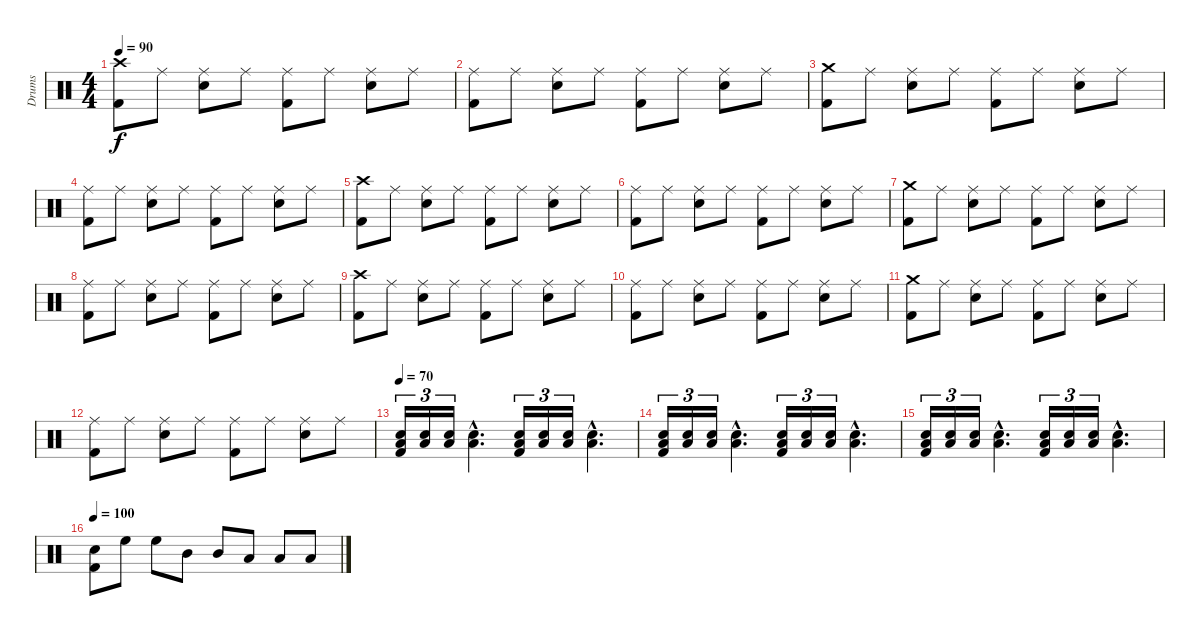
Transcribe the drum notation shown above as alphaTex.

\track ("Drums" "Drums") {instrument percussion}
\staff {score}
\articulation defaults
\ts (4 4)
\tempo 90
\clef neutral
\ks c
("Crash high (hit)" "Kick (hit) 2").8{dy f} "Ride (middle)".8 ("Ride (middle)" "Snare (hit) 2").8 "Ride (middle)".8 ("Ride (middle)" "Kick (hit) 2").8 "Ride (middle)".8 ("Ride (middle)" "Snare (hit) 2").8 "Ride (middle)".8 |
("Ride (middle)" "Kick (hit) 2").8 "Ride (middle)".8 ("Ride (middle)" "Snare (hit) 2").8 "Ride (middle)".8 ("Ride (middle)" "Kick (hit) 2").8 "Ride (middle)".8 ("Ride (middle)" "Snare (hit) 2").8 "Ride (middle)".8 |
("Crash medium (hit)" "Kick (hit) 2").8 "Ride (middle)".8 ("Ride (middle)" "Snare (hit) 2").8 "Ride (middle)".8 ("Ride (middle)" "Kick (hit) 2").8 "Ride (middle)".8 ("Ride (middle)" "Snare (hit) 2").8 "Ride (middle)".8 |
("Ride (middle)" "Kick (hit) 2").8 "Ride (middle)".8 ("Ride (middle)" "Snare (hit) 2").8 "Ride (middle)".8 ("Ride (middle)" "Kick (hit) 2").8 "Ride (middle)".8 ("Ride (middle)" "Snare (hit) 2").8 "Ride (middle)".8 |
("Crash high (hit)" "Kick (hit) 2").8 "Ride (middle)".8 ("Ride (middle)" "Snare (hit) 2").8 "Ride (middle)".8 ("Ride (middle)" "Kick (hit) 2").8 "Ride (middle)".8 ("Ride (middle)" "Snare (hit) 2").8 "Ride (middle)".8 |
("Ride (middle)" "Kick (hit) 2").8 "Ride (middle)".8 ("Ride (middle)" "Snare (hit) 2").8 "Ride (middle)".8 ("Ride (middle)" "Kick (hit) 2").8 "Ride (middle)".8 ("Ride (middle)" "Snare (hit) 2").8 "Ride (middle)".8 |
("Crash medium (hit)" "Kick (hit) 2").8 "Ride (middle)".8 ("Ride (middle)" "Snare (hit) 2").8 "Ride (middle)".8 ("Ride (middle)" "Kick (hit) 2").8 "Ride (middle)".8 ("Ride (middle)" "Snare (hit) 2").8 "Ride (middle)".8 |
("Ride (middle)" "Kick (hit) 2").8 "Ride (middle)".8 ("Ride (middle)" "Snare (hit) 2").8 "Ride (middle)".8 ("Ride (middle)" "Kick (hit) 2").8 "Ride (middle)".8 ("Ride (middle)" "Snare (hit) 2").8 "Ride (middle)".8 |
("Crash high (hit)" "Kick (hit) 2").8 "Ride (middle)".8 ("Ride (middle)" "Snare (hit) 2").8 "Ride (middle)".8 ("Ride (middle)" "Kick (hit) 2").8 "Ride (middle)".8 ("Ride (middle)" "Snare (hit) 2").8 "Ride (middle)".8 |
("Ride (middle)" "Kick (hit) 2").8 "Ride (middle)".8 ("Ride (middle)" "Snare (hit) 2").8 "Ride (middle)".8 ("Ride (middle)" "Kick (hit) 2").8 "Ride (middle)".8 ("Ride (middle)" "Snare (hit) 2").8 "Ride (middle)".8 |
("Crash medium (hit)" "Kick (hit) 2").8 "Ride (middle)".8 ("Ride (middle)" "Snare (hit) 2").8 "Ride (middle)".8 ("Ride (middle)" "Kick (hit) 2").8 "Ride (middle)".8 ("Ride (middle)" "Snare (hit) 2").8 "Ride (middle)".8 |
("Ride (middle)" "Kick (hit) 2").8 "Ride (middle)".8 ("Ride (middle)" "Snare (hit) 2").8 "Ride (middle)".8 ("Ride (middle)" "Kick (hit) 2").8 "Ride (middle)".8 ("Ride (middle)" "Snare (hit) 2").8 "Ride (middle)".8 |
\tempo 70
("Kick (hit) 2" "Low Floor Tom (hit)" "Snare (hit) 2").16{tu (3 2)} ("Low Floor Tom (hit)" "Snare (hit) 2").16{tu (3 2)} ("Low Floor Tom (hit)" "Snare (hit) 2").16{tu (3 2)} ("Low Floor Tom (hit)"{hac} "Snare (hit) 2"{hac}).4{d} ("Kick (hit) 2" "Low Floor Tom (hit)" "Snare (hit) 2").16{tu (3 2)} ("Low Floor Tom (hit)" "Snare (hit) 2").16{tu (3 2)} ("Snare (hit) 2" "Low Floor Tom (hit)").16{tu (3 2)} ("Snare (hit) 2"{hac} "Low Floor Tom (hit)"{hac}).4{d} |
("Kick (hit) 2" "Low Floor Tom (hit)" "Snare (hit) 2").16{tu (3 2)} ("Low Floor Tom (hit)" "Snare (hit) 2").16{tu (3 2)} ("Low Floor Tom (hit)" "Snare (hit) 2").16{tu (3 2)} ("Snare (hit) 2"{hac} "Low Floor Tom (hit)"{hac}).4{d} ("Kick (hit) 2" "Low Floor Tom (hit)" "Snare (hit) 2").16{tu (3 2)} ("Low Floor Tom (hit)" "Snare (hit) 2").16{tu (3 2)} ("Snare (hit) 2" "Low Floor Tom (hit)").16{tu (3 2)} ("Snare (hit) 2"{hac} "Low Floor Tom (hit)"{hac}).4{d} |
("Kick (hit) 2" "Low Floor Tom (hit)" "Snare (hit) 2").16{tu (3 2)} ("Low Floor Tom (hit)" "Snare (hit) 2").16{tu (3 2)} ("Low Floor Tom (hit)" "Snare (hit) 2").16{tu (3 2)} ("Low Floor Tom (hit)"{hac} "Snare (hit) 2"{hac}).4{d} ("Kick (hit) 2" "Low Floor Tom (hit)" "Snare (hit) 2").16{tu (3 2)} ("Low Floor Tom (hit)" "Snare (hit) 2").16{tu (3 2)} ("Snare (hit) 2" "Low Floor Tom (hit)").16{tu (3 2)} ("Snare (hit) 2"{hac} "Low Floor Tom (hit)"{hac}).4{d} |
\tempo 100
("Snare (hit) 2" "Kick (hit) 2").8 "High Floor Tom (hit)".8 "High Floor Tom (hit)".8 "Mid Tom (hit)".8 "Mid Tom (hit)".8 "Low Tom (hit)".8 "Low Tom (hit)".8 "Low Floor Tom (hit)".8
